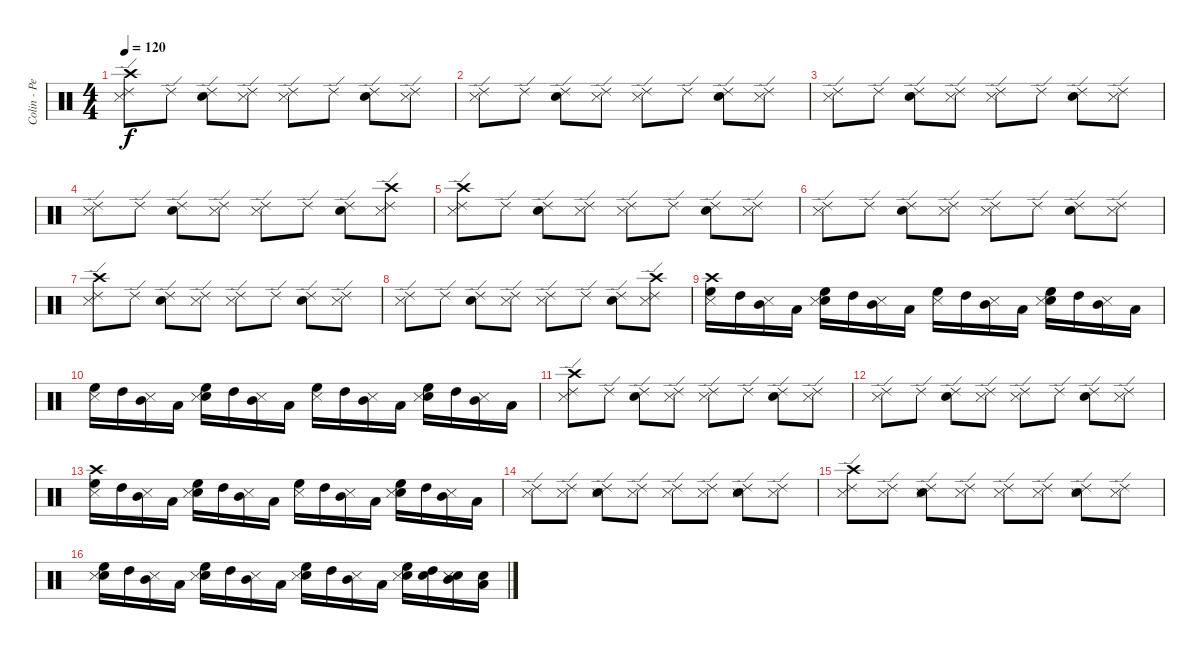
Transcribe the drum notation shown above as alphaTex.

\track ("Colin - Percussion" "Colin - Pe") {instrument percussion}
\staff {score}
\articulation defaults
\ts (4 4)
\tempo 120
\clef neutral
\ks c
("Ride (edge) 2" "Crash high (hit)" "Metronome (hit)").8{dy f} "Ride (edge) 2".8 ("Ride (edge) 2" "Electric Snare (hit)").8 ("Ride (edge) 2" "Metronome (hit)").8 ("Ride (edge) 2" "Metronome (hit)").8 "Ride (edge) 2".8 ("Ride (edge) 2" "Electric Snare (hit)").8 ("Ride (edge) 2" "Metronome (hit)").8 |
("Ride (edge) 2" "Metronome (hit)").8 "Ride (edge) 2".8 ("Ride (edge) 2" "Electric Snare (hit)").8 ("Ride (edge) 2" "Metronome (hit)").8 ("Ride (edge) 2" "Metronome (hit)").8 "Ride (edge) 2".8 ("Ride (edge) 2" "Electric Snare (hit)").8 ("Ride (edge) 2" "Metronome (hit)").8 |
("Ride (edge) 2" "Metronome (hit)").8 "Ride (edge) 2".8 ("Ride (edge) 2" "Electric Snare (hit)").8 ("Ride (edge) 2" "Metronome (hit)").8 ("Ride (edge) 2" "Metronome (hit)").8 "Ride (edge) 2".8 ("Ride (edge) 2" "Electric Snare (hit)").8 ("Ride (edge) 2" "Metronome (hit)").8 |
("Ride (edge) 2" "Metronome (hit)").8 "Ride (edge) 2".8 ("Ride (edge) 2" "Electric Snare (hit)").8 ("Ride (edge) 2" "Metronome (hit)").8 ("Ride (edge) 2" "Metronome (hit)").8 "Ride (edge) 2".8 ("Ride (edge) 2" "Electric Snare (hit)").8 ("Ride (edge) 2" "Crash high (hit)" "Metronome (hit)").8 |
("Ride (edge) 2" "Crash high (hit)" "Metronome (hit)").8 "Ride (edge) 2".8 ("Ride (edge) 2" "Electric Snare (hit)").8 ("Ride (edge) 2" "Metronome (hit)").8 ("Ride (edge) 2" "Metronome (hit)").8 "Ride (edge) 2".8 ("Ride (edge) 2" "Electric Snare (hit)").8 ("Ride (edge) 2" "Metronome (hit)").8 |
("Ride (edge) 2" "Metronome (hit)").8 "Ride (edge) 2".8 ("Ride (edge) 2" "Electric Snare (hit)").8 ("Ride (edge) 2" "Metronome (hit)").8 ("Ride (edge) 2" "Metronome (hit)").8 "Ride (edge) 2".8 ("Ride (edge) 2" "Electric Snare (hit)").8 ("Ride (edge) 2" "Metronome (hit)").8 |
("Ride (edge) 2" "Crash high (hit)" "Metronome (hit)").8 "Ride (edge) 2".8 ("Ride (edge) 2" "Electric Snare (hit)").8 ("Ride (edge) 2" "Metronome (hit)").8 ("Ride (edge) 2" "Metronome (hit)").8 "Ride (edge) 2".8 ("Ride (edge) 2" "Electric Snare (hit)").8 ("Ride (edge) 2" "Metronome (hit)").8 |
("Ride (edge) 2" "Metronome (hit)").8 "Ride (edge) 2".8 ("Ride (edge) 2" "Electric Snare (hit)").8 ("Ride (edge) 2" "Metronome (hit)").8 ("Ride (edge) 2" "Metronome (hit)").8 "Ride (edge) 2".8 ("Ride (edge) 2" "Electric Snare (hit)").8 ("Ride (edge) 2" "Crash high (hit)" "Metronome (hit)").8 |
("Crash high (hit)" "High Floor Tom (hit)" "Metronome (hit)").16 "High Tom (hit)".16 ("Mid Tom (hit)" "Metronome (hit)").16 "Low Tom (hit)".16 ("High Floor Tom (hit)" "Electric Snare (hit)" "Metronome (hit)").16 "High Tom (hit)".16 ("Mid Tom (hit)" "Metronome (hit)").16 "Low Tom (hit)".16 ("High Floor Tom (hit)" "Metronome (hit)").16 "High Tom (hit)".16 ("Mid Tom (hit)" "Metronome (hit)").16 "Low Tom (hit)".16 ("High Floor Tom (hit)" "Electric Snare (hit)" "Metronome (hit)").16 "High Tom (hit)".16 ("Mid Tom (hit)" "Metronome (hit)").16 "Low Tom (hit)".16 |
("High Floor Tom (hit)" "Metronome (hit)").16 "High Tom (hit)".16 ("Mid Tom (hit)" "Metronome (hit)").16 "Low Tom (hit)".16 ("High Floor Tom (hit)" "Electric Snare (hit)" "Metronome (hit)").16 "High Tom (hit)".16 ("Mid Tom (hit)" "Metronome (hit)").16 "Low Tom (hit)".16 ("High Floor Tom (hit)" "Metronome (hit)").16 "High Tom (hit)".16 ("Mid Tom (hit)" "Metronome (hit)").16 "Low Tom (hit)".16 ("High Floor Tom (hit)" "Electric Snare (hit)" "Metronome (hit)").16 "High Tom (hit)".16 ("Mid Tom (hit)" "Metronome (hit)").16 "Low Tom (hit)".16 |
("Ride (edge) 2" "Crash high (hit)" "Metronome (hit)").8 "Ride (edge) 2".8 ("Ride (edge) 2" "Electric Snare (hit)").8 ("Ride (edge) 2" "Metronome (hit)").8 ("Ride (edge) 2" "Metronome (hit)").8 "Ride (edge) 2".8 ("Ride (edge) 2" "Electric Snare (hit)").8 ("Ride (edge) 2" "Metronome (hit)").8 |
("Ride (edge) 2" "Metronome (hit)").8 "Ride (edge) 2".8 ("Ride (edge) 2" "Electric Snare (hit)").8 ("Ride (edge) 2" "Metronome (hit)").8 ("Ride (edge) 2" "Metronome (hit)").8 "Ride (edge) 2".8 ("Ride (edge) 2" "Electric Snare (hit)").8 ("Ride (edge) 2" "Metronome (hit)").8 |
("Crash high (hit)" "High Floor Tom (hit)" "Metronome (hit)").16 "High Tom (hit)".16 ("Mid Tom (hit)" "Metronome (hit)").16 "Low Tom (hit)".16 ("High Floor Tom (hit)" "Electric Snare (hit)" "Metronome (hit)").16 "High Tom (hit)".16 ("Mid Tom (hit)" "Metronome (hit)").16 "Low Tom (hit)".16 ("High Floor Tom (hit)" "Metronome (hit)").16 "High Tom (hit)".16 ("Mid Tom (hit)" "Metronome (hit)").16 "Low Tom (hit)".16 ("High Floor Tom (hit)" "Electric Snare (hit)" "Metronome (hit)").16 "High Tom (hit)".16 ("Mid Tom (hit)" "Metronome (hit)").16 "Low Tom (hit)".16 |
("Ride (edge) 2" "Metronome (hit)").8 ("Ride (edge) 2" "Metronome (hit)").8 ("Ride (edge) 2" "Electric Snare (hit)" "Metronome (hit)").8 ("Ride (edge) 2" "Metronome (hit)").8 ("Ride (edge) 2" "Metronome (hit)").8 ("Ride (edge) 2" "Metronome (hit)").8 ("Ride (edge) 2" "Electric Snare (hit)" "Metronome (hit)").8 ("Ride (edge) 2" "Metronome (hit)").8 |
("Ride (edge) 2" "Crash high (hit)" "Metronome (hit)").8 ("Ride (edge) 2" "Metronome (hit)").8 ("Ride (edge) 2" "Electric Snare (hit)" "Metronome (hit)").8 ("Ride (edge) 2" "Metronome (hit)").8 ("Ride (edge) 2" "Metronome (hit)").8 ("Ride (edge) 2" "Metronome (hit)").8 ("Ride (edge) 2" "Electric Snare (hit)" "Metronome (hit)").8 ("Ride (edge) 2" "Metronome (hit)").8 |
("High Floor Tom (hit)" "Electric Snare (hit)" "Metronome (hit)").16 "High Tom (hit)".16 ("Mid Tom (hit)" "Metronome (hit)").16 "Low Tom (hit)".16 ("High Floor Tom (hit)" "Electric Snare (hit)" "Metronome (hit)").16 "High Tom (hit)".16 ("Mid Tom (hit)" "Metronome (hit)").16 "Low Tom (hit)".16 ("High Floor Tom (hit)" "Electric Snare (hit)" "Metronome (hit)").16 "High Tom (hit)".16 ("Mid Tom (hit)" "Metronome (hit)").16 "Low Tom (hit)".16 ("High Floor Tom (hit)" "Electric Snare (hit)" "Metronome (hit)").16 ("High Tom (hit)" "Electric Snare (hit)").16 ("Mid Tom (hit)" "Electric Snare (hit)" "Metronome (hit)").16 ("Low Tom (hit)" "Electric Snare (hit)").16
